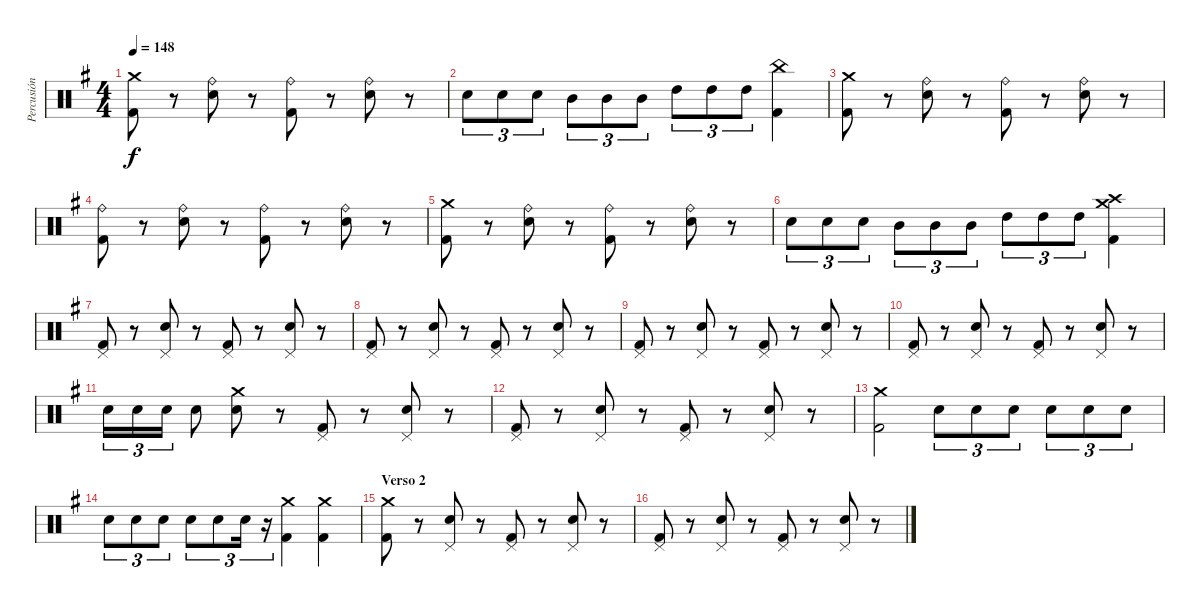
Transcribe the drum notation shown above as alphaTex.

\track ("Percusión" "Percusión") {instrument percussion}
\staff {score}
\articulation defaults
\ts (4 4)
\tempo 148
\clef neutral
\ks g
("Crash medium (hit)" "Kick (hit) 2").8{dy f} r.8 ("Ride (bell)" "Snare (hit) 2").8 r.8 ("Ride (bell)" "Kick (hit) 2").8 r.8 ("Ride (bell)" "Snare (hit) 2").8 r.8 |
"Snare (hit) 2".8{tu (3 2)} "Snare (hit) 2".8{tu (3 2)} "Snare (hit) 2".8{tu (3 2)} "Mid Tom (hit)".8{tu (3 2)} "Mid Tom (hit)".8{tu (3 2)} "Mid Tom (hit)".8{tu (3 2)} "High Tom (hit)".8{tu (3 2)} "High Tom (hit)".8{tu (3 2)} "High Tom (hit)".8{tu (3 2)} ("China (hit)" "Kick (hit) 2").4 |
("Crash medium (hit)" "Kick (hit) 2").8 r.8 ("Ride (bell)" "Snare (hit) 2").8 r.8 ("Ride (bell)" "Kick (hit) 2").8 r.8 ("Ride (bell)" "Snare (hit) 2").8 r.8 |
("Ride (bell)" "Kick (hit) 2").8 r.8 ("Ride (bell)" "Snare (hit) 2").8 r.8 ("Ride (bell)" "Kick (hit) 2").8 r.8 ("Ride (bell)" "Snare (hit) 2").8 r.8 |
("Crash medium (hit)" "Kick (hit) 2").8 r.8 ("Ride (bell)" "Snare (hit) 2").8 r.8 ("Ride (bell)" "Kick (hit) 2").8 r.8 ("Ride (bell)" "Snare (hit) 2").8 r.8 |
"Snare (hit) 2".8{tu (3 2)} "Snare (hit) 2".8{tu (3 2)} "Snare (hit) 2".8{tu (3 2)} "Mid Tom (hit)".8{tu (3 2)} "Mid Tom (hit)".8{tu (3 2)} "Mid Tom (hit)".8{tu (3 2)} "High Tom (hit)".8{tu (3 2)} "High Tom (hit)".8{tu (3 2)} "High Tom (hit)".8{tu (3 2)} ("Crash medium (hit)" "Crash high (hit)" "Kick (hit) 2").4 |
\section ("" "")
("Pedal Hi-Hat (hit)" "Kick (hit) 2").8 r.8 ("Pedal Hi-Hat (hit)" "Snare (hit) 2").8 r.8 ("Pedal Hi-Hat (hit)" "Kick (hit) 2").8 r.8 ("Pedal Hi-Hat (hit)" "Snare (hit) 2").8 r.8 |
("Pedal Hi-Hat (hit)" "Kick (hit) 2").8 r.8 ("Pedal Hi-Hat (hit)" "Snare (hit) 2").8 r.8 ("Pedal Hi-Hat (hit)" "Kick (hit) 2").8 r.8 ("Pedal Hi-Hat (hit)" "Snare (hit) 2").8 r.8 |
("Pedal Hi-Hat (hit)" "Kick (hit) 2").8 r.8 ("Pedal Hi-Hat (hit)" "Snare (hit) 2").8 r.8 ("Pedal Hi-Hat (hit)" "Kick (hit) 2").8 r.8 ("Pedal Hi-Hat (hit)" "Snare (hit) 2").8 r.8 |
("Pedal Hi-Hat (hit)" "Kick (hit) 2").8 r.8 ("Pedal Hi-Hat (hit)" "Snare (hit) 2").8 r.8 ("Pedal Hi-Hat (hit)" "Kick (hit) 2").8 r.8 ("Pedal Hi-Hat (hit)" "Snare (hit) 2").8 r.8 |
"Snare (hit) 2".16{tu (3 2)} "Snare (hit) 2".16{tu (3 2)} "Snare (hit) 2".16{tu (3 2)} "Snare (hit) 2".8 ("Crash medium (hit)" "Snare (hit) 2").8 r.8 ("Pedal Hi-Hat (hit)" "Kick (hit) 2").8 r.8 ("Pedal Hi-Hat (hit)" "Snare (hit) 2").8 r.8 |
("Pedal Hi-Hat (hit)" "Kick (hit) 2").8 r.8 ("Pedal Hi-Hat (hit)" "Snare (hit) 2").8 r.8 ("Pedal Hi-Hat (hit)" "Kick (hit) 2").8 r.8 ("Pedal Hi-Hat (hit)" "Snare (hit) 2").8 r.8 |
("Crash medium (hit)" "Kick (hit) 2").2 "Snare (hit) 2".8{tu (3 2)} "Snare (hit) 2".8{tu (3 2)} "Snare (hit) 2".8{tu (3 2)} "Snare (hit) 2".8{tu (3 2)} "Snare (hit) 2".8{tu (3 2)} "Snare (hit) 2".8{tu (3 2)} |
"Snare (hit) 2".8{tu (3 2)} "Snare (hit) 2".8{tu (3 2)} "Snare (hit) 2".8{tu (3 2)} "Snare (hit) 2".8{tu (3 2)} "Snare (hit) 2".8{tu (3 2)} "Snare (hit) 2".16{tu (3 2)} r.16{tu (3 2)} ("Crash medium (hit)" "Kick (hit) 2").4 ("Crash medium (hit)" "Kick (hit) 2").4 |
\section ("" "Verso 2")
("Crash medium (hit)" "Kick (hit) 2").8 r.8 ("Pedal Hi-Hat (hit)" "Snare (hit) 2").8 r.8 ("Pedal Hi-Hat (hit)" "Kick (hit) 2").8 r.8 ("Pedal Hi-Hat (hit)" "Snare (hit) 2").8 r.8 |
("Pedal Hi-Hat (hit)" "Kick (hit) 2").8 r.8 ("Pedal Hi-Hat (hit)" "Snare (hit) 2").8 r.8 ("Pedal Hi-Hat (hit)" "Kick (hit) 2").8 r.8 ("Pedal Hi-Hat (hit)" "Snare (hit) 2").8 r.8
